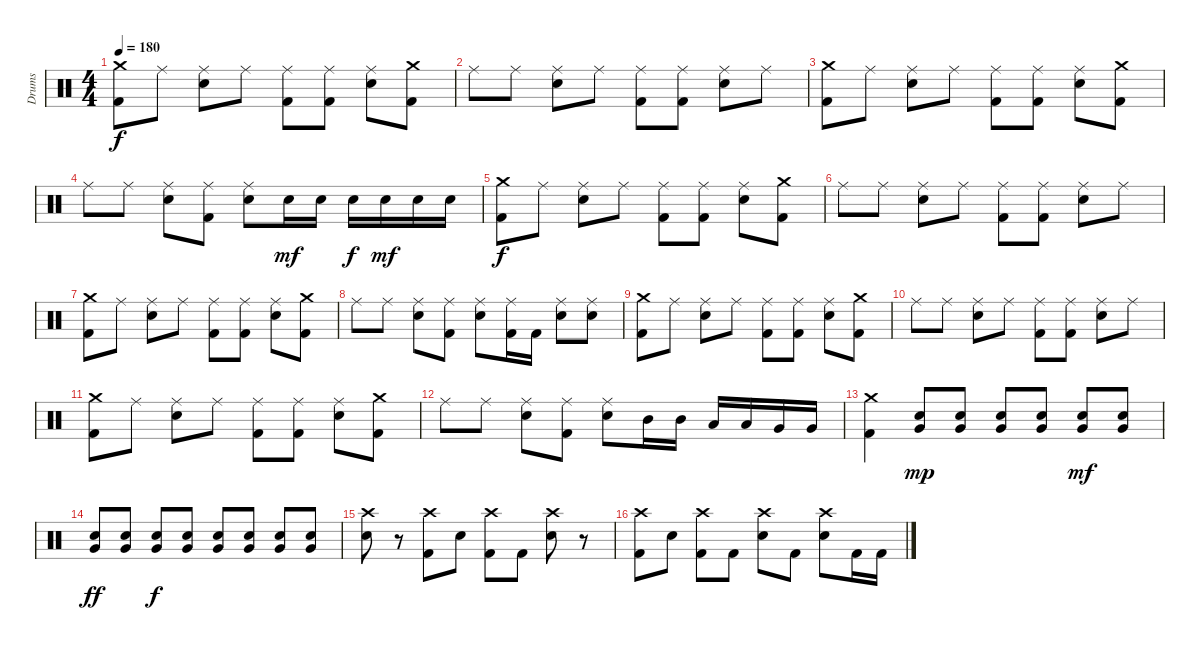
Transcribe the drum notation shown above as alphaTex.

\track ("Drums" "Drums") {instrument percussion}
\staff {score}
\articulation defaults
\ts (4 4)
\tempo 180
\clef neutral
\ks c
("Crash medium (hit)" "Kick (hit) 2").8{dy f} "Ride (middle)".8 ("Ride (middle)" "Electric Snare (hit)").8 "Ride (middle)".8 ("Ride (middle)" "Kick (hit) 2").8 ("Ride (middle)" "Kick (hit) 2").8 ("Ride (middle)" "Electric Snare (hit)").8 ("Crash medium (hit)" "Kick (hit) 2").8 |
"Ride (middle)".8 "Ride (middle)".8 ("Ride (middle)" "Electric Snare (hit)").8 "Ride (middle)".8 ("Ride (middle)" "Kick (hit) 2").8 ("Ride (middle)" "Kick (hit) 2").8 ("Ride (middle)" "Electric Snare (hit)").8 "Ride (middle)".8 |
("Crash medium (hit)" "Kick (hit) 2").8 "Ride (middle)".8 ("Ride (middle)" "Electric Snare (hit)").8 "Ride (middle)".8 ("Ride (middle)" "Kick (hit) 2").8 ("Ride (middle)" "Kick (hit) 2").8 ("Ride (middle)" "Electric Snare (hit)").8 ("Crash medium (hit)" "Kick (hit) 2").8 |
"Ride (middle)".8 "Ride (middle)".8 ("Ride (middle)" "Electric Snare (hit)").8 ("Ride (middle)" "Kick (hit) 2").8 ("Ride (middle)" "Electric Snare (hit)").8 "Electric Snare (hit)".16{dy mf} "Electric Snare (hit)".16 "Electric Snare (hit)".16{dy f} "Electric Snare (hit)".16{dy mf} "Electric Snare (hit)".16 "Electric Snare (hit)".16 |
("Crash medium (hit)" "Kick (hit) 2").8{dy f} "Ride (middle)".8 ("Ride (middle)" "Electric Snare (hit)").8 "Ride (middle)".8 ("Ride (middle)" "Kick (hit) 2").8 ("Ride (middle)" "Kick (hit) 2").8 ("Ride (middle)" "Electric Snare (hit)").8 ("Crash medium (hit)" "Kick (hit) 2").8 |
"Ride (middle)".8 "Ride (middle)".8 ("Ride (middle)" "Electric Snare (hit)").8 "Ride (middle)".8 ("Ride (middle)" "Kick (hit) 2").8 ("Ride (middle)" "Kick (hit) 2").8 ("Ride (middle)" "Electric Snare (hit)").8 "Ride (middle)".8 |
("Crash medium (hit)" "Kick (hit) 2").8 "Ride (middle)".8 ("Ride (middle)" "Electric Snare (hit)").8 "Ride (middle)".8 ("Ride (middle)" "Kick (hit) 2").8 ("Ride (middle)" "Kick (hit) 2").8 ("Ride (middle)" "Electric Snare (hit)").8 ("Crash medium (hit)" "Kick (hit) 2").8 |
"Ride (middle)".8 "Ride (middle)".8 ("Ride (middle)" "Electric Snare (hit)").8 ("Ride (middle)" "Kick (hit) 2").8 ("Ride (middle)" "Electric Snare (hit)").8 ("Ride (middle)" "Kick (hit) 2").16 "Kick (hit) 2".16 ("Ride (middle)" "Electric Snare (hit)").8 ("Ride (middle)" "Electric Snare (hit)").8 |
("Crash medium (hit)" "Kick (hit) 2").8 "Ride (middle)".8 ("Ride (middle)" "Electric Snare (hit)").8 "Ride (middle)".8 ("Ride (middle)" "Kick (hit) 2").8 ("Ride (middle)" "Kick (hit) 2").8 ("Ride (middle)" "Electric Snare (hit)").8 ("Crash medium (hit)" "Kick (hit) 2").8 |
"Ride (middle)".8 "Ride (middle)".8 ("Ride (middle)" "Electric Snare (hit)").8 "Ride (middle)".8 ("Ride (middle)" "Kick (hit) 2").8 ("Ride (middle)" "Kick (hit) 2").8 ("Ride (middle)" "Electric Snare (hit)").8 "Ride (middle)".8 |
("Crash medium (hit)" "Kick (hit) 2").8 "Ride (middle)".8 ("Ride (middle)" "Electric Snare (hit)").8 "Ride (middle)".8 ("Ride (middle)" "Kick (hit) 2").8 ("Ride (middle)" "Kick (hit) 2").8 ("Ride (middle)" "Electric Snare (hit)").8 ("Crash medium (hit)" "Kick (hit) 2").8 |
"Ride (middle)".8 "Ride (middle)".8 ("Ride (middle)" "Electric Snare (hit)").8 ("Ride (middle)" "Kick (hit) 2").8 ("Ride (middle)" "Electric Snare (hit)").8 "Mid Tom (hit)".16 "Mid Tom (hit)".16 "Low Tom (hit)".16 "Low Tom (hit)".16 "Very Low Tom (hit)".16 "Very Low Tom (hit)".16 |
("Crash medium (hit)" "Kick (hit) 2").4 ("Very Low Tom (hit)" "Electric Snare (hit)").8{dy mp} ("Very Low Tom (hit)" "Electric Snare (hit)").8 ("Very Low Tom (hit)" "Electric Snare (hit)").8 ("Very Low Tom (hit)" "Electric Snare (hit)").8 ("Very Low Tom (hit)" "Electric Snare (hit)").8{dy mf} ("Very Low Tom (hit)" "Electric Snare (hit)").8 |
("Very Low Tom (hit)" "Electric Snare (hit)").8{dy ff} ("Very Low Tom (hit)" "Electric Snare (hit)").8 ("Very Low Tom (hit)" "Electric Snare (hit)").8{dy f} ("Very Low Tom (hit)" "Electric Snare (hit)").8 ("Very Low Tom (hit)" "Electric Snare (hit)").8 ("Very Low Tom (hit)" "Electric Snare (hit)").8 ("Very Low Tom (hit)" "Electric Snare (hit)").8 ("Very Low Tom (hit)" "Electric Snare (hit)").8 |
("Crash high (hit)" "Electric Snare (hit)").8 r.8 ("Crash high (hit)" "Kick (hit) 2").8 "Electric Snare (hit)".8 ("Crash high (hit)" "Kick (hit) 2").8 "Kick (hit) 2".8 ("Crash high (hit)" "Electric Snare (hit)").8 r.8 |
("Crash high (hit)" "Kick (hit) 2").8 "Electric Snare (hit)".8 ("Crash high (hit)" "Kick (hit) 2").8 "Kick (hit) 2".8 ("Crash high (hit)" "Electric Snare (hit)").8 "Kick (hit) 2".8 ("Crash high (hit)" "Electric Snare (hit)").8 "Kick (hit) 2".16 "Kick (hit) 2".16
